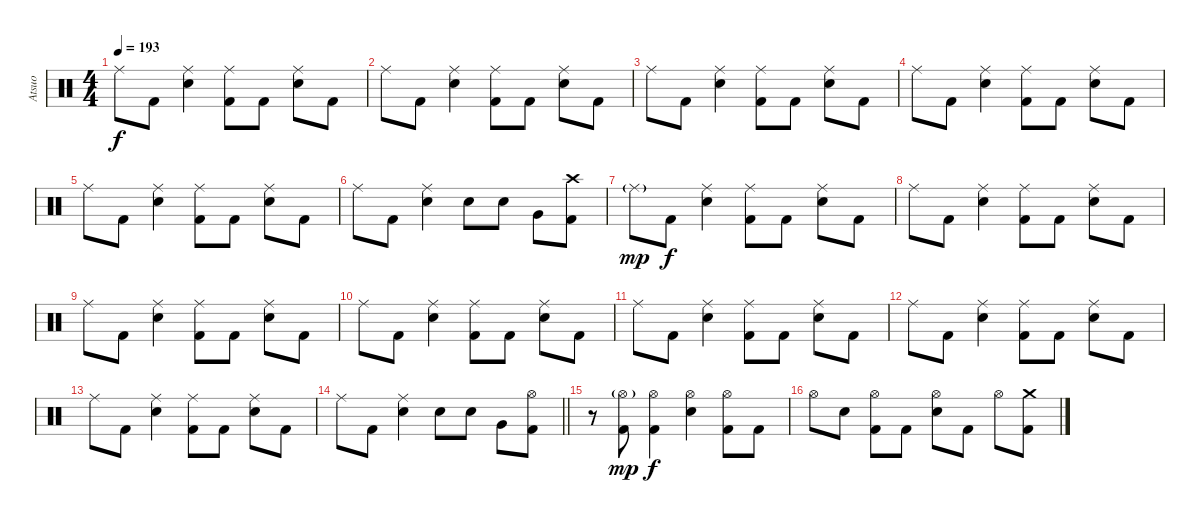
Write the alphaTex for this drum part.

\track ("Atsuo" "Atsuo") {instrument percussion}
\staff {score}
\articulation defaults
\ts (4 4)
\tempo 193
\clef neutral
\ks c "Ride (middle)".8{dy f} "Kick (hit) 2".8
("Ride (middle)" "Electric Snare (hit)").4 ("Ride (middle)" "Kick (hit) 2").8 "Kick (hit) 2".8 ("Ride (middle)" "Electric Snare (hit)").8 "Kick (hit) 2".8 |
"Ride (middle)".8 "Kick (hit) 2".8 ("Ride (middle)" "Electric Snare (hit)").4 ("Ride (middle)" "Kick (hit) 2").8 "Kick (hit) 2".8 ("Ride (middle)" "Electric Snare (hit)").8 "Kick (hit) 2".8 |
"Ride (middle)".8 "Kick (hit) 2".8 ("Ride (middle)" "Electric Snare (hit)").4 ("Ride (middle)" "Kick (hit) 2").8 "Kick (hit) 2".8 ("Ride (middle)" "Electric Snare (hit)").8 "Kick (hit) 2".8 |
"Ride (middle)".8 "Kick (hit) 2".8 ("Ride (middle)" "Electric Snare (hit)").4 ("Ride (middle)" "Kick (hit) 2").8 "Kick (hit) 2".8 ("Ride (middle)" "Electric Snare (hit)").8 "Kick (hit) 2".8 |
"Ride (middle)".8 "Kick (hit) 2".8 ("Ride (middle)" "Electric Snare (hit)").4 ("Ride (middle)" "Kick (hit) 2").8 "Kick (hit) 2".8 ("Ride (middle)" "Electric Snare (hit)").8 "Kick (hit) 2".8 |
"Ride (middle)".8 "Kick (hit) 2".8 ("Ride (middle)" "Electric Snare (hit)").4 "Electric Snare (hit)".8 "Electric Snare (hit)".8 "Very Low Tom (hit)".8 ("Crash high (hit)" "Kick (hit) 2").8 |
"Ride (middle)"{g}.8{dy mp} "Kick (hit) 2".8{dy f} ("Ride (middle)" "Electric Snare (hit)").4 ("Ride (middle)" "Kick (hit) 2").8 "Kick (hit) 2".8 ("Ride (middle)" "Electric Snare (hit)").8 "Kick (hit) 2".8 |
"Ride (middle)".8 "Kick (hit) 2".8 ("Ride (middle)" "Electric Snare (hit)").4 ("Ride (middle)" "Kick (hit) 2").8 "Kick (hit) 2".8 ("Ride (middle)" "Electric Snare (hit)").8 "Kick (hit) 2".8 |
"Ride (middle)".8 "Kick (hit) 2".8 ("Ride (middle)" "Electric Snare (hit)").4 ("Ride (middle)" "Kick (hit) 2").8 "Kick (hit) 2".8 ("Ride (middle)" "Electric Snare (hit)").8 "Kick (hit) 2".8 |
"Ride (middle)".8 "Kick (hit) 2".8 ("Ride (middle)" "Electric Snare (hit)").4 ("Ride (middle)" "Kick (hit) 2").8 "Kick (hit) 2".8 ("Ride (middle)" "Electric Snare (hit)").8 "Kick (hit) 2".8 |
"Ride (middle)".8 "Kick (hit) 2".8 ("Ride (middle)" "Electric Snare (hit)").4 ("Ride (middle)" "Kick (hit) 2").8 "Kick (hit) 2".8 ("Ride (middle)" "Electric Snare (hit)").8 "Kick (hit) 2".8 |
"Ride (middle)".8 "Kick (hit) 2".8 ("Ride (middle)" "Electric Snare (hit)").4 ("Ride (middle)" "Kick (hit) 2").8 "Kick (hit) 2".8 ("Ride (middle)" "Electric Snare (hit)").8 "Kick (hit) 2".8 |
"Ride (middle)".8 "Kick (hit) 2".8 ("Ride (middle)" "Electric Snare (hit)").4 ("Ride (middle)" "Kick (hit) 2").8 "Kick (hit) 2".8 ("Ride (middle)" "Electric Snare (hit)").8 "Kick (hit) 2".8 |
\barLineRight lightlight "Ride (middle)".8 "Kick (hit) 2".8
("Ride (middle)" "Electric Snare (hit)").4 "Electric Snare (hit)".8 "Electric Snare (hit)".8 "Very Low Tom (hit)".8 ("Hi-Hat (open)" "Kick (hit) 2").8 |
\section ("" "")
r.8 ("Hi-Hat (open)"{g} "Kick (hit) 2").8{dy mp} ("Hi-Hat (open)" "Kick (hit) 2").4{dy f} ("Hi-Hat (open)" "Electric Snare (hit)").4 ("Hi-Hat (open)" "Kick (hit) 2").8 "Kick (hit) 2".8 |
"Hi-Hat (open)".8 "Electric Snare (hit)".8 ("Hi-Hat (open)" "Kick (hit) 2").8 "Kick (hit) 2".8 ("Hi-Hat (open)" "Electric Snare (hit)").8 "Kick (hit) 2".8 "Hi-Hat (open)".8 ("Crash medium (hit)" "Kick (hit) 2").8
